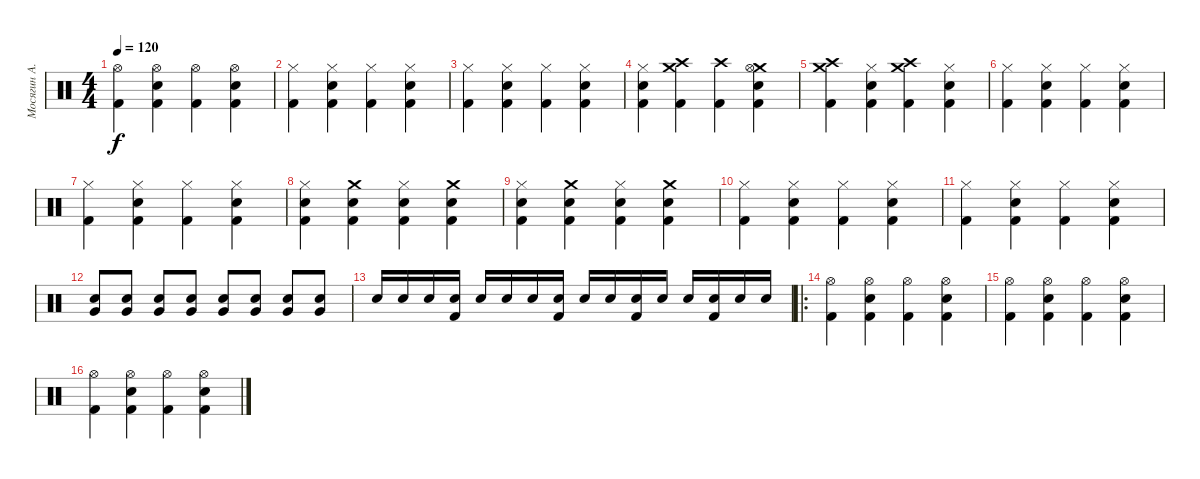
\track ("Мосягин А." "Мосягин А.") {instrument percussion}
\staff {score}
\articulation defaults
\ts (4 4)
\tempo 120
\clef neutral
\ks c
("Hi-Hat (open)" "Kick (hit) 2").4{dy f} ("Hi-Hat (open)" "Snare (hit) 2" "Kick (hit) 2").4 ("Hi-Hat (open)" "Kick (hit) 2").4 ("Hi-Hat (open)" "Snare (hit) 2" "Kick (hit) 2").4 |
("Hi-Hat (closed)" "Kick (hit) 2").4 ("Hi-Hat (closed)" "Snare (hit) 2" "Kick (hit) 2").4 ("Hi-Hat (closed)" "Kick (hit) 2").4 ("Hi-Hat (closed)" "Snare (hit) 2" "Kick (hit) 2").4 |
("Hi-Hat (closed)" "Kick (hit) 2").4 ("Hi-Hat (closed)" "Snare (hit) 2" "Kick (hit) 2").4 ("Hi-Hat (closed)" "Kick (hit) 2").4 ("Hi-Hat (closed)" "Snare (hit) 2" "Kick (hit) 2").4 |
("Hi-Hat (closed)" "Snare (hit) 2" "Kick (hit) 2").4 ("Crash medium (hit)" "Crash high (hit)" "Kick (hit) 2").4 ("Crash high (hit)" "Kick (hit) 2").4 ("Crash medium (hit)" "Hi-Hat (open)" "Snare (hit) 2" "Kick (hit) 2").4 |
("Crash medium (hit)" "Crash high (hit)" "Kick (hit) 2").4 ("Hi-Hat (closed)" "Snare (hit) 2" "Kick (hit) 2").4 ("Crash medium (hit)" "Crash high (hit)" "Kick (hit) 2").4 ("Hi-Hat (closed)" "Snare (hit) 2" "Kick (hit) 2").4 |
("Hi-Hat (closed)" "Kick (hit) 2").4 ("Hi-Hat (closed)" "Snare (hit) 2" "Kick (hit) 2").4 ("Hi-Hat (closed)" "Kick (hit) 2").4 ("Hi-Hat (closed)" "Snare (hit) 2" "Kick (hit) 2").4 |
("Hi-Hat (closed)" "Kick (hit) 2").4 ("Hi-Hat (closed)" "Snare (hit) 2" "Kick (hit) 2").4 ("Hi-Hat (closed)" "Kick (hit) 2").4 ("Hi-Hat (closed)" "Snare (hit) 2" "Kick (hit) 2").4 |
("Hi-Hat (closed)" "Snare (hit) 2" "Kick (hit) 2").4 ("Crash medium (hit)" "Snare (hit) 2" "Kick (hit) 2").4 ("Hi-Hat (closed)" "Snare (hit) 2" "Kick (hit) 2").4 ("Crash medium (hit)" "Snare (hit) 2" "Kick (hit) 2").4 |
("Hi-Hat (closed)" "Snare (hit) 2" "Kick (hit) 2").4 ("Crash medium (hit)" "Snare (hit) 2" "Kick (hit) 2").4 ("Hi-Hat (closed)" "Snare (hit) 2" "Kick (hit) 2").4 ("Crash medium (hit)" "Snare (hit) 2" "Kick (hit) 2").4 |
("Hi-Hat (closed)" "Kick (hit) 2").4 ("Hi-Hat (closed)" "Snare (hit) 2" "Kick (hit) 2").4 ("Hi-Hat (closed)" "Kick (hit) 2").4 ("Hi-Hat (closed)" "Snare (hit) 2" "Kick (hit) 2").4 |
("Hi-Hat (closed)" "Kick (hit) 2").4 ("Hi-Hat (closed)" "Snare (hit) 2" "Kick (hit) 2").4 ("Hi-Hat (closed)" "Kick (hit) 2").4 ("Hi-Hat (closed)" "Snare (hit) 2" "Kick (hit) 2").4 |
("Very Low Tom (hit)" "Snare (hit) 2").8 ("Very Low Tom (hit)" "Snare (hit) 2").8 ("Very Low Tom (hit)" "Snare (hit) 2").8 ("Very Low Tom (hit)" "Snare (hit) 2").8 ("Very Low Tom (hit)" "Snare (hit) 2").8 ("Very Low Tom (hit)" "Snare (hit) 2").8 ("Very Low Tom (hit)" "Snare (hit) 2").8 ("Very Low Tom (hit)" "Snare (hit) 2").8 |
"Snare (hit) 2".16 "Snare (hit) 2".16 "Snare (hit) 2".16 ("Snare (hit) 2" "Kick (hit) 2").16 "Snare (hit) 2".16 "Snare (hit) 2".16 "Snare (hit) 2".16 ("Snare (hit) 2" "Kick (hit) 2").16 "Snare (hit) 2".16 "Snare (hit) 2".16 ("Snare (hit) 2" "Kick (hit) 2").16 "Snare (hit) 2".16 "Snare (hit) 2".16 ("Snare (hit) 2" "Kick (hit) 2").16 "Snare (hit) 2".16 "Snare (hit) 2".16 |
\ro
("Hi-Hat (open)" "Kick (hit) 2").4 ("Hi-Hat (open)" "Snare (hit) 2" "Kick (hit) 2").4 ("Hi-Hat (open)" "Kick (hit) 2").4 ("Hi-Hat (open)" "Snare (hit) 2" "Kick (hit) 2").4 |
("Hi-Hat (open)" "Kick (hit) 2").4 ("Hi-Hat (open)" "Snare (hit) 2" "Kick (hit) 2").4 ("Hi-Hat (open)" "Kick (hit) 2").4 ("Hi-Hat (open)" "Snare (hit) 2" "Kick (hit) 2").4 |
("Hi-Hat (open)" "Kick (hit) 2").4 ("Hi-Hat (open)" "Snare (hit) 2" "Kick (hit) 2").4 ("Hi-Hat (open)" "Kick (hit) 2").4 ("Hi-Hat (open)" "Snare (hit) 2" "Kick (hit) 2").4
